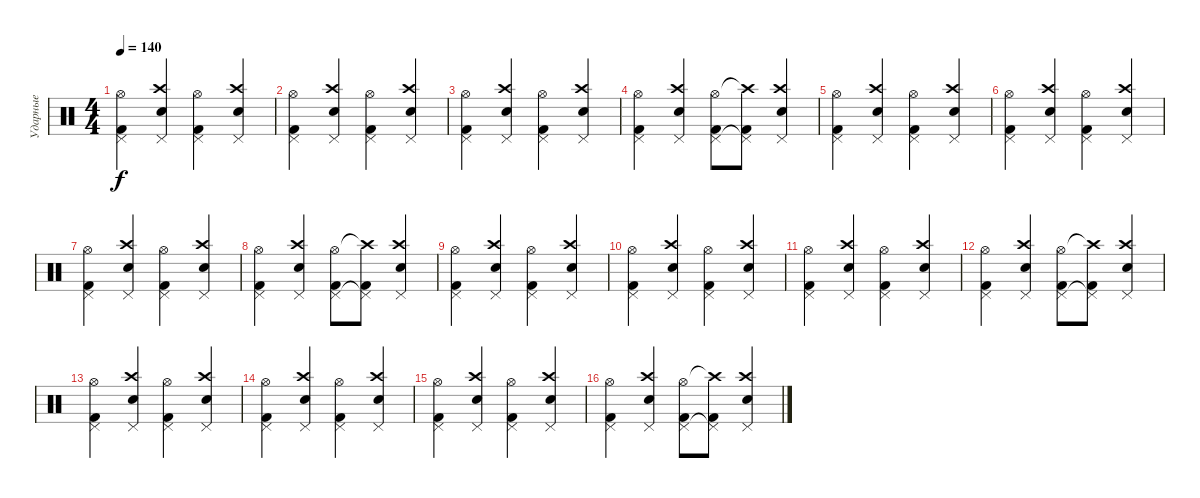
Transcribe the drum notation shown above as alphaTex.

\track ("Ударные" "Ударные") {instrument percussion}
\staff {score}
\articulation defaults
\ts (4 4)
\tempo 140
\clef neutral
\ks c
("Hi-Hat (open)" "Pedal Hi-Hat (hit)" "Kick (hit) 2").4{dy f} ("Crash high (hit)" "Pedal Hi-Hat (hit)" "Electric Snare (hit)").4 ("Hi-Hat (open)" "Pedal Hi-Hat (hit)" "Kick (hit) 2").4 ("Crash high (hit)" "Pedal Hi-Hat (hit)" "Electric Snare (hit)").4 |
("Hi-Hat (open)" "Pedal Hi-Hat (hit)" "Kick (hit) 2").4 ("Crash high (hit)" "Pedal Hi-Hat (hit)" "Electric Snare (hit)").4 ("Hi-Hat (open)" "Pedal Hi-Hat (hit)" "Kick (hit) 2").4 ("Crash high (hit)" "Pedal Hi-Hat (hit)" "Electric Snare (hit)").4 |
("Hi-Hat (open)" "Pedal Hi-Hat (hit)" "Kick (hit) 2").4 ("Crash high (hit)" "Pedal Hi-Hat (hit)" "Electric Snare (hit)").4 ("Hi-Hat (open)" "Pedal Hi-Hat (hit)" "Kick (hit) 2").4 ("Crash high (hit)" "Pedal Hi-Hat (hit)" "Electric Snare (hit)").4 |
("Hi-Hat (open)" "Pedal Hi-Hat (hit)" "Kick (hit) 2").4 ("Crash high (hit)" "Pedal Hi-Hat (hit)" "Electric Snare (hit)").4 ("Hi-Hat (open)" "Pedal Hi-Hat (hit)" "Kick (hit) 2").8 ("Crash high (hit)"{t} "Pedal Hi-Hat (hit)"{t} "Kick (hit) 2").8 ("Crash high (hit)" "Pedal Hi-Hat (hit)" "Electric Snare (hit)").4 |
("Hi-Hat (open)" "Pedal Hi-Hat (hit)" "Kick (hit) 2").4 ("Crash high (hit)" "Pedal Hi-Hat (hit)" "Electric Snare (hit)").4 ("Hi-Hat (open)" "Pedal Hi-Hat (hit)" "Kick (hit) 2").4 ("Crash high (hit)" "Pedal Hi-Hat (hit)" "Electric Snare (hit)").4 |
("Hi-Hat (open)" "Pedal Hi-Hat (hit)" "Kick (hit) 2").4 ("Crash high (hit)" "Pedal Hi-Hat (hit)" "Electric Snare (hit)").4 ("Hi-Hat (open)" "Pedal Hi-Hat (hit)" "Kick (hit) 2").4 ("Crash high (hit)" "Pedal Hi-Hat (hit)" "Electric Snare (hit)").4 |
("Hi-Hat (open)" "Pedal Hi-Hat (hit)" "Kick (hit) 2").4 ("Crash high (hit)" "Pedal Hi-Hat (hit)" "Electric Snare (hit)").4 ("Hi-Hat (open)" "Pedal Hi-Hat (hit)" "Kick (hit) 2").4 ("Crash high (hit)" "Pedal Hi-Hat (hit)" "Electric Snare (hit)").4 |
("Hi-Hat (open)" "Pedal Hi-Hat (hit)" "Kick (hit) 2").4 ("Crash high (hit)" "Pedal Hi-Hat (hit)" "Electric Snare (hit)").4 ("Hi-Hat (open)" "Pedal Hi-Hat (hit)" "Kick (hit) 2").8 ("Crash high (hit)"{t} "Pedal Hi-Hat (hit)"{t} "Kick (hit) 2").8 ("Crash high (hit)" "Pedal Hi-Hat (hit)" "Electric Snare (hit)").4 |
("Hi-Hat (open)" "Pedal Hi-Hat (hit)" "Kick (hit) 2").4 ("Crash high (hit)" "Pedal Hi-Hat (hit)" "Electric Snare (hit)").4 ("Hi-Hat (open)" "Pedal Hi-Hat (hit)" "Kick (hit) 2").4 ("Crash high (hit)" "Pedal Hi-Hat (hit)" "Electric Snare (hit)").4 |
("Hi-Hat (open)" "Pedal Hi-Hat (hit)" "Kick (hit) 2").4 ("Crash high (hit)" "Pedal Hi-Hat (hit)" "Electric Snare (hit)").4 ("Hi-Hat (open)" "Pedal Hi-Hat (hit)" "Kick (hit) 2").4 ("Crash high (hit)" "Pedal Hi-Hat (hit)" "Electric Snare (hit)").4 |
("Hi-Hat (open)" "Pedal Hi-Hat (hit)" "Kick (hit) 2").4 ("Crash high (hit)" "Pedal Hi-Hat (hit)" "Electric Snare (hit)").4 ("Hi-Hat (open)" "Pedal Hi-Hat (hit)" "Kick (hit) 2").4 ("Crash high (hit)" "Pedal Hi-Hat (hit)" "Electric Snare (hit)").4 |
("Hi-Hat (open)" "Pedal Hi-Hat (hit)" "Kick (hit) 2").4 ("Crash high (hit)" "Pedal Hi-Hat (hit)" "Electric Snare (hit)").4 ("Hi-Hat (open)" "Pedal Hi-Hat (hit)" "Kick (hit) 2").8 ("Crash high (hit)"{t} "Pedal Hi-Hat (hit)"{t} "Kick (hit) 2").8 ("Crash high (hit)" "Pedal Hi-Hat (hit)" "Electric Snare (hit)").4 |
("Hi-Hat (open)" "Pedal Hi-Hat (hit)" "Kick (hit) 2").4 ("Crash high (hit)" "Pedal Hi-Hat (hit)" "Electric Snare (hit)").4 ("Hi-Hat (open)" "Pedal Hi-Hat (hit)" "Kick (hit) 2").4 ("Crash high (hit)" "Pedal Hi-Hat (hit)" "Electric Snare (hit)").4 |
("Hi-Hat (open)" "Pedal Hi-Hat (hit)" "Kick (hit) 2").4 ("Crash high (hit)" "Pedal Hi-Hat (hit)" "Electric Snare (hit)").4 ("Hi-Hat (open)" "Pedal Hi-Hat (hit)" "Kick (hit) 2").4 ("Crash high (hit)" "Pedal Hi-Hat (hit)" "Electric Snare (hit)").4 |
("Hi-Hat (open)" "Pedal Hi-Hat (hit)" "Kick (hit) 2").4 ("Crash high (hit)" "Pedal Hi-Hat (hit)" "Electric Snare (hit)").4 ("Hi-Hat (open)" "Pedal Hi-Hat (hit)" "Kick (hit) 2").4 ("Crash high (hit)" "Pedal Hi-Hat (hit)" "Electric Snare (hit)").4 |
("Hi-Hat (open)" "Pedal Hi-Hat (hit)" "Kick (hit) 2").4 ("Crash high (hit)" "Pedal Hi-Hat (hit)" "Electric Snare (hit)").4 ("Hi-Hat (open)" "Pedal Hi-Hat (hit)" "Kick (hit) 2").8 ("Crash high (hit)"{t} "Pedal Hi-Hat (hit)"{t} "Kick (hit) 2").8 ("Crash high (hit)" "Pedal Hi-Hat (hit)" "Electric Snare (hit)").4
